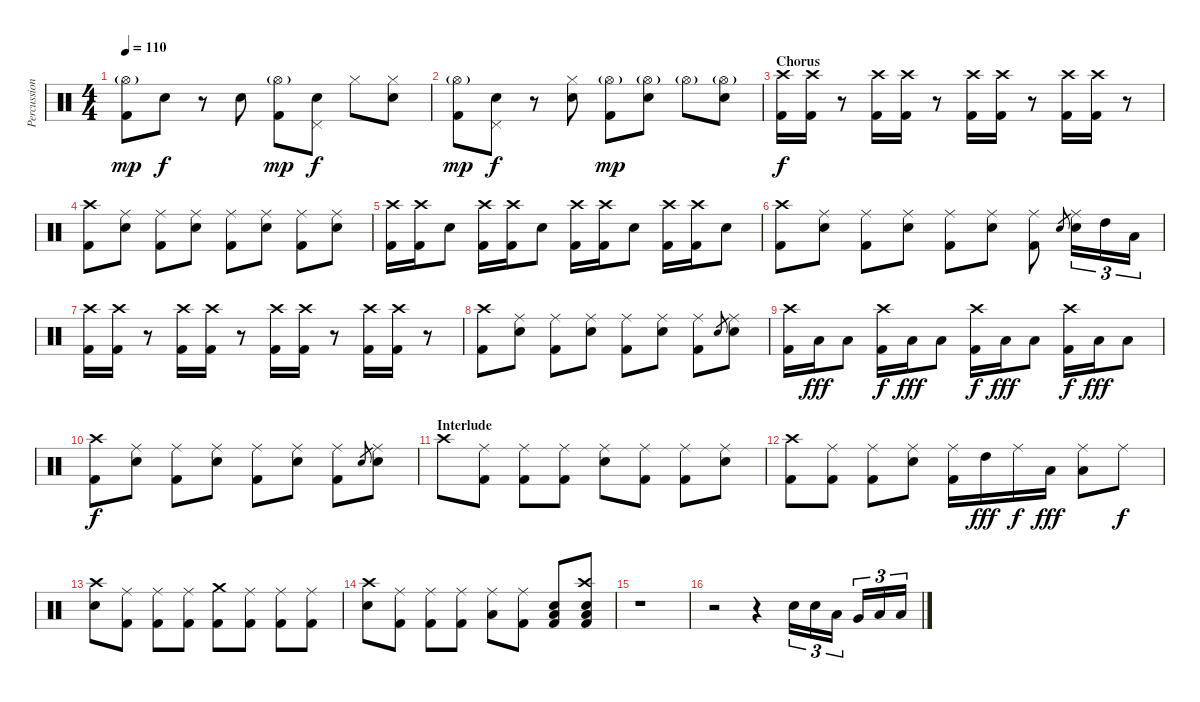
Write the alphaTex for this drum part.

\track ("Percussion" "Percussion") {instrument percussion}
\staff {score}
\articulation defaults
\ts (4 4)
\tempo 110
\clef neutral
\ks c
("Hi-Hat (open)"{g} "Kick (hit) 2").8{dy mp} "Electric Snare (hit)".8{dy f} r.8 "Electric Snare (hit)".8 ("Hi-Hat (open)"{g} "Kick (hit) 2").8{dy mp} ("Pedal Hi-Hat (hit)" "Electric Snare (hit)").8{dy f} "Hi-Hat (closed)".8 ("Hi-Hat (closed)" "Electric Snare (hit)").8 |
("Hi-Hat (open)"{g} "Kick (hit) 2").8{dy mp} ("Pedal Hi-Hat (hit)" "Electric Snare (hit)").8{dy f} r.8 ("Hi-Hat (closed)" "Electric Snare (hit)").8 ("Hi-Hat (open)"{g} "Kick (hit) 2").8{dy mp} ("Hi-Hat (open)"{g} "Electric Snare (hit)").8 "Hi-Hat (open)"{g}.8 ("Hi-Hat (open)"{g} "Electric Snare (hit)").8 |
\section ("" "Chorus")
("Crash high (hit)" "Kick (hit) 2").16{dy f} ("Crash high (hit)" "Kick (hit) 2").16 r.8{volume 0} ("Crash high (hit)" "Kick (hit) 2").16{volume 14} ("Crash high (hit)" "Kick (hit) 2").16 r.8{volume 0} ("Crash high (hit)" "Kick (hit) 2").16{volume 14} ("Crash high (hit)" "Kick (hit) 2").16 r.8{volume 0} ("Crash high (hit)" "Kick (hit) 2").16{volume 14} ("Crash high (hit)" "Kick (hit) 2").16 r.8{volume 0} |
("Crash high (hit)" "Kick (hit) 2").8{volume 14} ("Ride (middle)" "Electric Snare (hit)").8 ("Ride (middle)" "Kick (hit) 2").8 ("Ride (middle)" "Electric Snare (hit)").8 ("Ride (middle)" "Kick (hit) 2").8 ("Ride (middle)" "Electric Snare (hit)").8 ("Ride (middle)" "Kick (hit) 2").8 ("Ride (middle)" "Electric Snare (hit)").8 |
("Crash high (hit)" "Kick (hit) 2").16 ("Crash high (hit)" "Kick (hit) 2").16 "Snare (hit)"{x}.8{volume 0} ("Crash high (hit)" "Kick (hit) 2").16{volume 14} ("Crash high (hit)" "Kick (hit) 2").16 "Snare (hit)"{x}.8{volume 0} ("Crash high (hit)" "Kick (hit) 2").16{volume 14} ("Crash high (hit)" "Kick (hit) 2").16 "Snare (hit)"{x}.8{volume 0} ("Crash high (hit)" "Kick (hit) 2").16{volume 14} ("Crash high (hit)" "Kick (hit) 2").16 "Snare (hit)"{x}.8{volume 0} |
("Crash high (hit)" "Kick (hit) 2").8{volume 14} ("Ride (middle)" "Electric Snare (hit)").8 ("Ride (middle)" "Kick (hit) 2").8 ("Ride (middle)" "Electric Snare (hit)").8 ("Ride (middle)" "Kick (hit) 2").8 ("Ride (middle)" "Electric Snare (hit)").8 ("Ride (middle)" "Kick (hit) 2").8 "Electric Snare (hit)".8{gr} ("Ride (middle)" "Electric Snare (hit)").16{tu (3 2)} "High Tom (hit)".16{tu (3 2)} "Low Tom (hit)".16{tu (3 2)} |
("Crash high (hit)" "Kick (hit) 2").16 ("Crash high (hit)" "Kick (hit) 2").16 r.8 ("Crash high (hit)" "Kick (hit) 2").16 ("Crash high (hit)" "Kick (hit) 2").16 r.8 ("Crash high (hit)" "Kick (hit) 2").16 ("Crash high (hit)" "Kick (hit) 2").16 r.8 ("Crash high (hit)" "Kick (hit) 2").16 ("Crash high (hit)" "Kick (hit) 2").16 r.8 |
("Crash high (hit)" "Kick (hit) 2").8 ("Ride (middle)" "Electric Snare (hit)").8 ("Ride (middle)" "Kick (hit) 2").8 ("Ride (middle)" "Electric Snare (hit)").8 ("Ride (middle)" "Kick (hit) 2").8 ("Ride (middle)" "Electric Snare (hit)").8 ("Ride (middle)" "Kick (hit) 2").8 "Electric Snare (hit)".8{gr} ("Ride (middle)" "Electric Snare (hit)").8 |
("Crash high (hit)" "Kick (hit) 2").16 "Low Tom (hit)".16{dy fff} "Low Floor Tom (hit)".8 ("Crash high (hit)" "Kick (hit) 2").16{dy f} "Low Tom (hit)".16{dy fff} "Low Floor Tom (hit)".8 ("Crash high (hit)" "Kick (hit) 2").16{dy f} "Low Tom (hit)".16{dy fff} "Low Floor Tom (hit)".8 ("Crash high (hit)" "Kick (hit) 2").16{dy f} "Low Tom (hit)".16{dy fff} "Low Floor Tom (hit)".8 |
("Crash high (hit)" "Kick (hit) 2").8{dy f} ("Ride (middle)" "Electric Snare (hit)").8 ("Ride (middle)" "Kick (hit) 2").8 ("Ride (middle)" "Electric Snare (hit)").8 ("Ride (middle)" "Kick (hit) 2").8 ("Ride (middle)" "Electric Snare (hit)").8 ("Ride (middle)" "Kick (hit) 2").8 "Electric Snare (hit)".8{gr} ("Ride (middle)" "Electric Snare (hit)").8 |
\section ("" "Interlude")
"Crash high (hit)".8 ("Ride (middle)" "Kick (hit) 2").8 ("Ride (middle)" "Kick (hit) 2").8 ("Ride (middle)" "Kick (hit) 2").8 ("Ride (middle)" "Electric Snare (hit)").8 ("Ride (middle)" "Kick (hit) 2").8 ("Ride (middle)" "Kick (hit) 2").8 ("Ride (middle)" "Electric Snare (hit)").8 |
("Crash high (hit)" "Kick (hit) 2").8 ("Ride (middle)" "Kick (hit) 2").8 ("Ride (middle)" "Kick (hit) 2").8 ("Ride (middle)" "Electric Snare (hit)").8 ("Ride (middle)" "Kick (hit) 2").16 "High Tom (hit)".16{dy fff} "Ride (middle)".16{dy f} "Low Tom (hit)".16{dy fff} ("Ride (middle)" "Low Floor Tom (hit)").8 "Ride (middle)".8{dy f} |
("Crash high (hit)" "Electric Snare (hit)").8 ("Ride (middle)" "Kick (hit) 2").8 ("Ride (middle)" "Kick (hit) 2").8 ("Ride (middle)" "Kick (hit) 2").8 ("Crash medium (hit)" "Kick (hit) 2").8 ("Ride (middle)" "Kick (hit) 2").8 ("Ride (middle)" "Kick (hit) 2").8 ("Ride (middle)" "Kick (hit) 2").8 |
("Crash high (hit)" "Electric Snare (hit)").8 ("Ride (middle)" "Kick (hit) 2").8 ("Ride (middle)" "Kick (hit) 2").8 ("Ride (middle)" "Kick (hit) 2").8 ("Ride (middle)" "Low Tom (hit)").8 ("Ride (middle)" "Kick (hit) 2").8 ("Low Tom (hit)" "Electric Snare (hit)" "Kick (hit) 2").8 ("Crash high (hit)" "Low Tom (hit)" "Electric Snare (hit)" "Kick (hit) 2").8 |
r.1 |
r.2 r.4 "Electric Snare (hit)".16{tu (3 2)} "Electric Snare (hit)".16{tu (3 2)} "Low Tom (hit)".16{tu (3 2)} "Very Low Tom (hit)".16{tu (3 2)} "Low Floor Tom (hit)".16{tu (3 2)} "Low Floor Tom (hit)".16{tu (3 2)}
